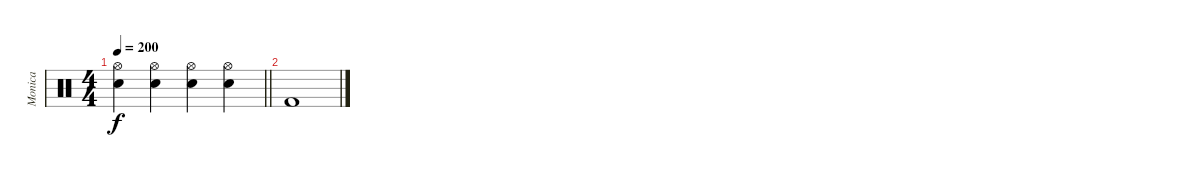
\track ("Monica" "Monica") {instrument percussion}
\staff {score}
\articulation defaults
\ts (4 4)
\tempo 200
\clef neutral
\barLineRight lightlight
\ks c
("Hi-Hat (open)" "Snare (hit) 2").4{dy f} ("Hi-Hat (open)" "Snare (hit) 2").4 ("Hi-Hat (open)" "Snare (hit) 2").4 ("Hi-Hat (open)" "Snare (hit) 2").4 |
"Kick (hit) 2".1
